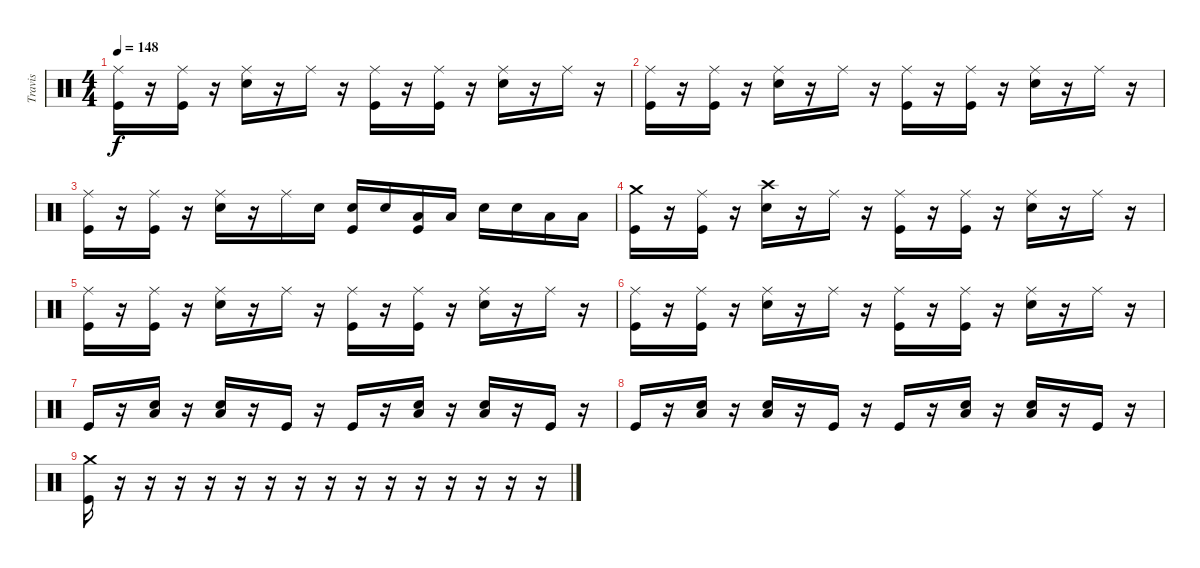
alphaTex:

\track ("Travis" "Travis") {instrument percussion}
\staff {score}
\articulation defaults
\ts (4 4)
\tempo 148
\clef neutral
\ks c
("Ride (middle)" "Kick (hit)").16{dy f} r.16 ("Ride (middle)" "Kick (hit)").16 r.16 ("Ride (middle)" "Snare (hit) 2").16 r.16 "Ride (middle)".16 r.16 ("Ride (middle)" "Kick (hit)").16 r.16 ("Ride (middle)" "Kick (hit)").16 r.16 ("Ride (middle)" "Snare (hit) 2").16 r.16 "Ride (middle)".16 r.16 |
("Ride (middle)" "Kick (hit)").16 r.16 ("Ride (middle)" "Kick (hit)").16 r.16 ("Ride (middle)" "Snare (hit) 2").16 r.16 "Ride (middle)".16 r.16 ("Ride (middle)" "Kick (hit)").16 r.16 ("Ride (middle)" "Kick (hit)").16 r.16 ("Ride (middle)" "Snare (hit) 2").16 r.16 "Ride (middle)".16 r.16 |
("Ride (middle)" "Kick (hit)").16 r.16 ("Ride (middle)" "Kick (hit)").16 r.16 ("Ride (middle)" "Snare (hit) 2").16 r.16 "Ride (middle)".16 "Snare (hit) 2".16 ("Snare (hit) 2" "Kick (hit)").16 "Snare (hit) 2".16 ("Low Tom (hit)" "Kick (hit)").16 "Low Tom (hit)".16 "Snare (hit) 2".16 "Snare (hit) 2".16 "Low Floor Tom (hit)".16 "Low Floor Tom (hit)".16 |
("Crash medium (hit)" "Kick (hit)").16 r.16 ("Ride (middle)" "Kick (hit)").16 r.16 ("Crash high (hit)" "Snare (hit) 2").16 r.16 "Ride (middle)".16 r.16 ("Ride (middle)" "Kick (hit)").16 r.16 ("Ride (middle)" "Kick (hit)").16 r.16 ("Ride (middle)" "Snare (hit) 2").16 r.16 "Ride (middle)".16 r.16 |
("Ride (middle)" "Kick (hit)").16 r.16 ("Ride (middle)" "Kick (hit)").16 r.16 ("Ride (middle)" "Snare (hit) 2").16 r.16 "Ride (middle)".16 r.16 ("Ride (middle)" "Kick (hit)").16 r.16 ("Ride (middle)" "Kick (hit)").16 r.16 ("Ride (middle)" "Snare (hit) 2").16 r.16 "Ride (middle)".16 r.16 |
("Ride (middle)" "Kick (hit)").16 r.16 ("Ride (middle)" "Kick (hit)").16 r.16 ("Ride (middle)" "Snare (hit) 2").16 r.16 "Ride (middle)".16 r.16 ("Ride (middle)" "Kick (hit)").16 r.16 ("Ride (middle)" "Kick (hit)").16 r.16 ("Ride (middle)" "Snare (hit) 2").16 r.16 "Ride (middle)".16 r.16 |
"Kick (hit)".16 r.16 ("Low Floor Tom (hit)" "Snare (hit) 2").16 r.16 ("Low Floor Tom (hit)" "Snare (hit) 2").16 r.16 "Kick (hit)".16 r.16 "Kick (hit)".16 r.16 ("Low Floor Tom (hit)" "Snare (hit) 2").16 r.16 ("Low Floor Tom (hit)" "Snare (hit) 2").16 r.16 "Kick (hit)".16 r.16 |
"Kick (hit)".16 r.16 ("Low Floor Tom (hit)" "Snare (hit) 2").16 r.16 ("Low Floor Tom (hit)" "Snare (hit) 2").16 r.16 "Kick (hit)".16 r.16 "Kick (hit)".16 r.16 ("Low Floor Tom (hit)" "Snare (hit) 2").16 r.16 ("Low Floor Tom (hit)" "Snare (hit) 2").16 r.16 "Kick (hit)".16 r.16 |
("Crash medium (hit)" "Kick (hit)").16 r.16 r.16 r.16 r.16 r.16 r.16 r.16 r.16 r.16 r.16 r.16 r.16 r.16 r.16 r.16
